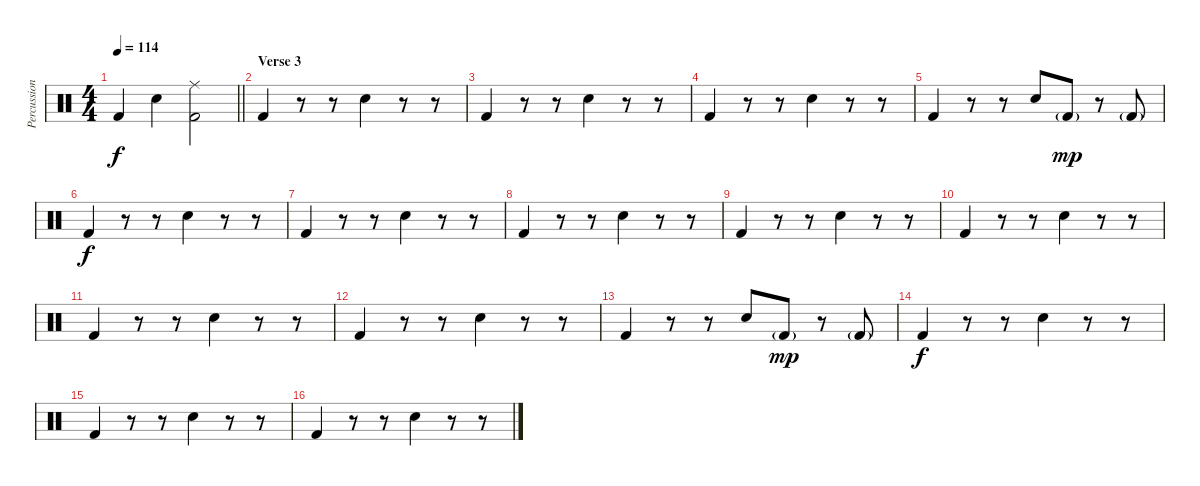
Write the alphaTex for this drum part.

\track ("Percussion" "Percussion") {instrument percussion}
\staff {score}
\articulation defaults
\ts (4 4)
\tempo 114
\clef neutral
\barLineRight lightlight
\ks c "Kick (hit) 2".4{dy f} "Snare (hit) 2".4
("Ride (middle)" "Kick (hit) 2").2 |
\section ("" "Verse 3")
"Kick (hit) 2".4 r.8 r.8 "Snare (hit) 2".4 r.8 r.8 |
"Kick (hit) 2".4 r.8 r.8 "Snare (hit) 2".4 r.8 r.8 |
"Kick (hit) 2".4 r.8 r.8 "Snare (hit) 2".4 r.8 r.8 |
"Kick (hit) 2".4 r.8 r.8 "Snare (hit) 2".8 "Kick (hit) 2"{g}.8{dy mp} r.8 "Kick (hit) 2"{g}.8 |
"Kick (hit) 2".4{dy f} r.8 r.8 "Snare (hit) 2".4 r.8 r.8 |
"Kick (hit) 2".4 r.8 r.8 "Snare (hit) 2".4 r.8 r.8 |
"Kick (hit) 2".4 r.8 r.8 "Snare (hit) 2".4 r.8 r.8 |
"Kick (hit) 2".4 r.8 r.8 "Snare (hit) 2".4 r.8 r.8 |
"Kick (hit) 2".4 r.8 r.8 "Snare (hit) 2".4 r.8 r.8 |
"Kick (hit) 2".4 r.8 r.8 "Snare (hit) 2".4 r.8 r.8 |
"Kick (hit) 2".4 r.8 r.8 "Snare (hit) 2".4 r.8 r.8 |
"Kick (hit) 2".4 r.8 r.8 "Snare (hit) 2".8 "Kick (hit) 2"{g}.8{dy mp} r.8 "Kick (hit) 2"{g}.8 |
"Kick (hit) 2".4{dy f} r.8 r.8 "Snare (hit) 2".4 r.8 r.8 |
"Kick (hit) 2".4 r.8 r.8 "Snare (hit) 2".4 r.8 r.8 |
"Kick (hit) 2".4 r.8 r.8 "Snare (hit) 2".4 r.8 r.8
